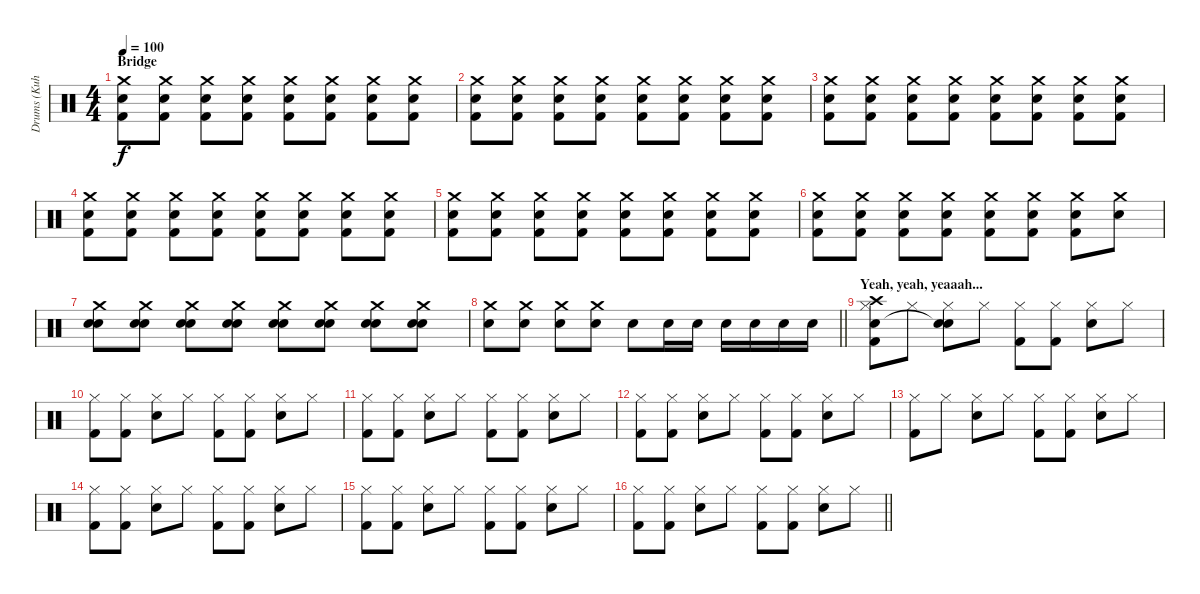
\track ("Drums (Kuhara)" "Drums (Kuh") {instrument percussion}
\staff {score}
\articulation defaults
\ts (4 4)
\section ("" "Bridge")
\tempo 100
\clef neutral
\ks c
("Crash medium (hit)" "Electric Snare (hit)" "Kick (hit) 2").8{dy f} ("Crash medium (hit)" "Electric Snare (hit)" "Kick (hit) 2").8 ("Crash medium (hit)" "Electric Snare (hit)" "Kick (hit) 2").8 ("Crash medium (hit)" "Electric Snare (hit)" "Kick (hit) 2").8 ("Crash medium (hit)" "Electric Snare (hit)" "Kick (hit) 2").8 ("Crash medium (hit)" "Electric Snare (hit)" "Kick (hit) 2").8 ("Crash medium (hit)" "Electric Snare (hit)" "Kick (hit) 2").8 ("Crash medium (hit)" "Electric Snare (hit)" "Kick (hit) 2").8 |
("Crash medium (hit)" "Electric Snare (hit)" "Kick (hit) 2").8 ("Crash medium (hit)" "Electric Snare (hit)" "Kick (hit) 2").8 ("Crash medium (hit)" "Electric Snare (hit)" "Kick (hit) 2").8 ("Crash medium (hit)" "Electric Snare (hit)" "Kick (hit) 2").8 ("Crash medium (hit)" "Electric Snare (hit)" "Kick (hit) 2").8 ("Crash medium (hit)" "Electric Snare (hit)" "Kick (hit) 2").8 ("Crash medium (hit)" "Electric Snare (hit)" "Kick (hit) 2").8 ("Crash medium (hit)" "Electric Snare (hit)" "Kick (hit) 2").8 |
("Crash medium (hit)" "Electric Snare (hit)" "Kick (hit) 2").8 ("Crash medium (hit)" "Electric Snare (hit)" "Kick (hit) 2").8 ("Crash medium (hit)" "Electric Snare (hit)" "Kick (hit) 2").8 ("Crash medium (hit)" "Electric Snare (hit)" "Kick (hit) 2").8 ("Crash medium (hit)" "Electric Snare (hit)" "Kick (hit) 2").8 ("Crash medium (hit)" "Electric Snare (hit)" "Kick (hit) 2").8 ("Crash medium (hit)" "Electric Snare (hit)" "Kick (hit) 2").8 ("Crash medium (hit)" "Electric Snare (hit)" "Kick (hit) 2").8 |
("Crash medium (hit)" "Electric Snare (hit)" "Kick (hit) 2").8 ("Crash medium (hit)" "Electric Snare (hit)" "Kick (hit) 2").8 ("Crash medium (hit)" "Electric Snare (hit)" "Kick (hit) 2").8 ("Crash medium (hit)" "Electric Snare (hit)" "Kick (hit) 2").8 ("Crash medium (hit)" "Electric Snare (hit)" "Kick (hit) 2").8 ("Crash medium (hit)" "Electric Snare (hit)" "Kick (hit) 2").8 ("Crash medium (hit)" "Electric Snare (hit)" "Kick (hit) 2").8 ("Crash medium (hit)" "Electric Snare (hit)" "Kick (hit) 2").8 |
("Crash medium (hit)" "Electric Snare (hit)" "Kick (hit) 2").8 ("Crash medium (hit)" "Electric Snare (hit)" "Kick (hit) 2").8 ("Crash medium (hit)" "Electric Snare (hit)" "Kick (hit) 2").8 ("Crash medium (hit)" "Electric Snare (hit)" "Kick (hit) 2").8 ("Crash medium (hit)" "Electric Snare (hit)" "Kick (hit) 2").8 ("Crash medium (hit)" "Electric Snare (hit)" "Kick (hit) 2").8 ("Crash medium (hit)" "Electric Snare (hit)" "Kick (hit) 2").8 ("Crash medium (hit)" "Electric Snare (hit)" "Kick (hit) 2").8 |
("Crash medium (hit)" "Electric Snare (hit)" "Kick (hit) 2").8 ("Crash medium (hit)" "Electric Snare (hit)" "Kick (hit) 2").8 ("Crash medium (hit)" "Electric Snare (hit)" "Kick (hit) 2").8 ("Crash medium (hit)" "Electric Snare (hit)" "Kick (hit) 2").8 ("Crash medium (hit)" "Electric Snare (hit)" "Kick (hit) 2").8 ("Crash medium (hit)" "Electric Snare (hit)" "Kick (hit) 2").8 ("Crash medium (hit)" "Electric Snare (hit)" "Kick (hit) 2").8 ("Crash medium (hit)" "Electric Snare (hit)").8{volume 7} |
("Crash medium (hit)" "Electric Snare (hit)" "Electric Snare (hit)").8{volume 13} ("Crash medium (hit)" "Electric Snare (hit)" "Electric Snare (hit)").8 ("Crash medium (hit)" "Electric Snare (hit)" "Electric Snare (hit)").8 ("Crash medium (hit)" "Electric Snare (hit)" "Electric Snare (hit)").8 ("Crash medium (hit)" "Electric Snare (hit)" "Electric Snare (hit)").8 ("Crash medium (hit)" "Electric Snare (hit)" "Electric Snare (hit)").8 ("Crash medium (hit)" "Electric Snare (hit)" "Electric Snare (hit)").8 ("Crash medium (hit)" "Electric Snare (hit)" "Electric Snare (hit)").8 |
\barLineRight lightlight
("Crash medium (hit)" "Electric Snare (hit)").8 ("Crash medium (hit)" "Electric Snare (hit)").8 ("Crash medium (hit)" "Electric Snare (hit)").8 ("Crash medium (hit)" "Electric Snare (hit)").8 "Electric Snare (hit)".8 "Electric Snare (hit)".16 "Electric Snare (hit)".16 "Electric Snare (hit)".16 "Electric Snare (hit)".16 "Electric Snare (hit)".16 "Electric Snare (hit)".16 |
\section ("" "Yeah, yeah, yeaaah...")
("Hi-Hat (closed)" "Electric Snare (hit)" "Crash high (hit)" "Kick (hit) 2").8{volume 12} "Hi-Hat (closed)".8 ("Hi-Hat (closed)" "Snare (hit)"{t} "Electric Snare (hit)").8 "Hi-Hat (closed)".8 ("Hi-Hat (closed)" "Kick (hit) 2").8 ("Hi-Hat (closed)" "Kick (hit) 2").8 ("Hi-Hat (closed)" "Electric Snare (hit)").8 "Hi-Hat (closed)".8 |
("Hi-Hat (closed)" "Kick (hit) 2").8 ("Hi-Hat (closed)" "Kick (hit) 2").8 ("Hi-Hat (closed)" "Electric Snare (hit)").8 "Hi-Hat (closed)".8 ("Hi-Hat (closed)" "Kick (hit) 2").8 ("Hi-Hat (closed)" "Kick (hit) 2").8 ("Hi-Hat (closed)" "Electric Snare (hit)").8 "Hi-Hat (closed)".8 |
("Hi-Hat (closed)" "Kick (hit) 2").8 ("Hi-Hat (closed)" "Kick (hit) 2").8 ("Hi-Hat (closed)" "Electric Snare (hit)").8 "Hi-Hat (closed)".8 ("Hi-Hat (closed)" "Kick (hit) 2").8 ("Hi-Hat (closed)" "Kick (hit) 2").8 ("Hi-Hat (closed)" "Electric Snare (hit)").8 "Hi-Hat (closed)".8 |
("Hi-Hat (closed)" "Kick (hit) 2").8 ("Hi-Hat (closed)" "Kick (hit) 2").8 ("Hi-Hat (closed)" "Electric Snare (hit)").8 "Hi-Hat (closed)".8 ("Hi-Hat (closed)" "Kick (hit) 2").8 ("Hi-Hat (closed)" "Kick (hit) 2").8 ("Hi-Hat (closed)" "Electric Snare (hit)").8 "Hi-Hat (closed)".8 |
("Hi-Hat (closed)" "Kick (hit) 2").8 "Hi-Hat (closed)".8 ("Hi-Hat (closed)" "Electric Snare (hit)").8 "Hi-Hat (closed)".8 ("Hi-Hat (closed)" "Kick (hit) 2").8 ("Hi-Hat (closed)" "Kick (hit) 2").8 ("Hi-Hat (closed)" "Electric Snare (hit)").8 "Hi-Hat (closed)".8 |
("Hi-Hat (closed)" "Kick (hit) 2").8 ("Hi-Hat (closed)" "Kick (hit) 2").8 ("Hi-Hat (closed)" "Electric Snare (hit)").8 "Hi-Hat (closed)".8 ("Hi-Hat (closed)" "Kick (hit) 2").8 ("Hi-Hat (closed)" "Kick (hit) 2").8 ("Hi-Hat (closed)" "Electric Snare (hit)").8 "Hi-Hat (closed)".8 |
("Hi-Hat (closed)" "Kick (hit) 2").8 ("Hi-Hat (closed)" "Kick (hit) 2").8 ("Hi-Hat (closed)" "Electric Snare (hit)").8 "Hi-Hat (closed)".8 ("Hi-Hat (closed)" "Kick (hit) 2").8 ("Hi-Hat (closed)" "Kick (hit) 2").8 ("Hi-Hat (closed)" "Electric Snare (hit)").8 "Hi-Hat (closed)".8 |
\barLineRight lightlight
("Hi-Hat (closed)" "Kick (hit) 2").8 ("Hi-Hat (closed)" "Kick (hit) 2").8 ("Hi-Hat (closed)" "Electric Snare (hit)").8 "Hi-Hat (closed)".8 ("Hi-Hat (closed)" "Kick (hit) 2").8 ("Hi-Hat (closed)" "Kick (hit) 2").8 ("Hi-Hat (closed)" "Electric Snare (hit)").8 "Hi-Hat (closed)".8
